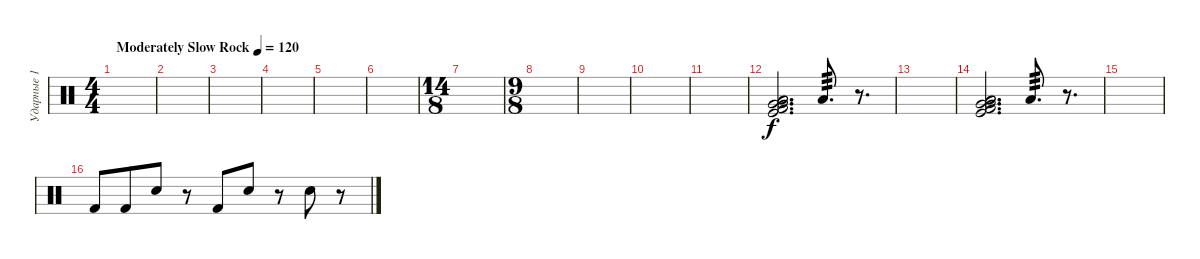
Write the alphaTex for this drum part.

\track ("Ударные 1" "Ударные 1") {instrument percussion}
\staff {score}
\articulation defaults
\ts (4 4)
\tempo (120 "Moderately Slow Rock")
\clef neutral
\ks c
|
|
|
|
|
|
\ts (14 8)
|
\ts (9 8)
|
|
|
|
("Very Low Tom (hit)" "Low Floor Tom (hit)" "Kick (hit)" "Kick (hit) 2" "Very Low Tom (hit)" "Low Floor Tom (hit)").2{d} "Low Floor Tom (hit)".8{d tp 3} r.8{d} |
|
("Very Low Tom (hit)" "Low Floor Tom (hit)" "Kick (hit)" "Kick (hit) 2" "Very Low Tom (hit)" "Low Floor Tom (hit)").2{d} "Low Floor Tom (hit)".8{d tp 3} r.8{d} |
|
"Kick (hit) 2".8 "Kick (hit) 2".8 "Snare (hit) 2".8 r.8 "Kick (hit) 2".8 "Snare (hit) 2".8 r.8 "Snare (hit) 2".8 r.8
